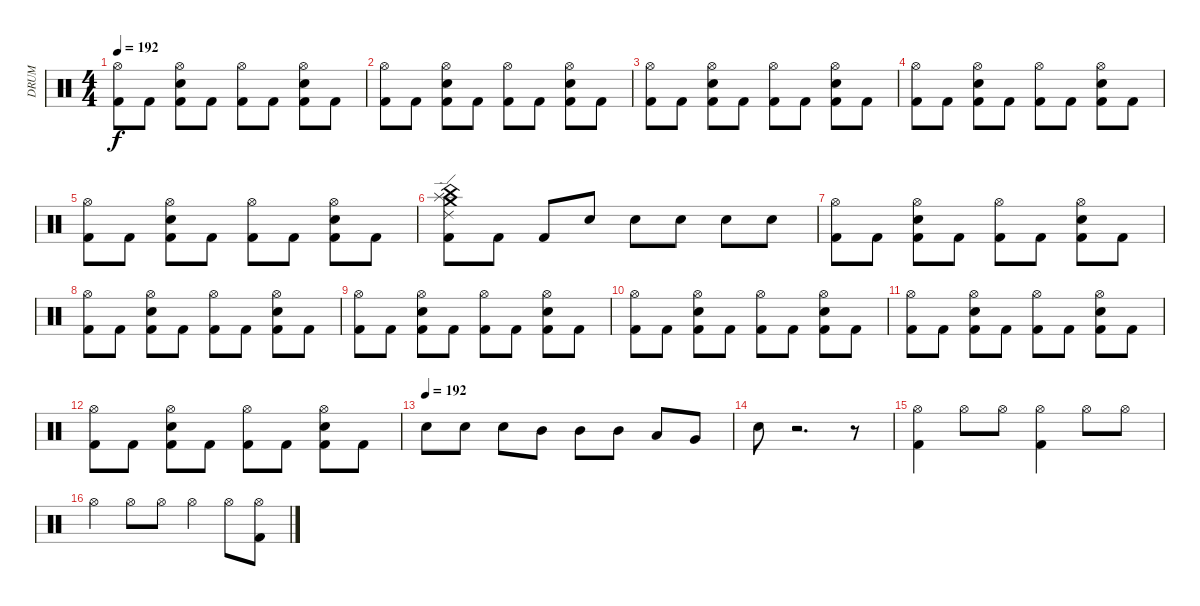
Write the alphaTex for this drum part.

\track ("     DRUM" "     DRUM") {instrument percussion}
\staff {score}
\articulation defaults
\ts (4 4)
\tempo 192
\clef neutral
\ks c
("Hi-Hat (open)" "Kick (hit) 2").8{dy f} "Kick (hit) 2".8 ("Electric Snare (hit)" "Hi-Hat (open)" "Kick (hit) 2").8 "Kick (hit) 2".8 ("Hi-Hat (open)" "Kick (hit) 2").8 "Kick (hit) 2".8 ("Electric Snare (hit)" "Hi-Hat (open)" "Kick (hit) 2").8 "Kick (hit) 2".8 |
("Hi-Hat (open)" "Kick (hit) 2").8 "Kick (hit) 2".8 ("Electric Snare (hit)" "Hi-Hat (open)" "Kick (hit) 2").8 "Kick (hit) 2".8 ("Hi-Hat (open)" "Kick (hit) 2").8 "Kick (hit) 2".8 ("Electric Snare (hit)" "Hi-Hat (open)" "Kick (hit) 2").8 "Kick (hit) 2".8 |
("Hi-Hat (open)" "Kick (hit) 2").8 "Kick (hit) 2".8 ("Electric Snare (hit)" "Hi-Hat (open)" "Kick (hit) 2").8 "Kick (hit) 2".8 ("Hi-Hat (open)" "Kick (hit) 2").8 "Kick (hit) 2".8 ("Electric Snare (hit)" "Hi-Hat (open)" "Kick (hit) 2").8 "Kick (hit) 2".8 |
("Hi-Hat (open)" "Kick (hit) 2").8 "Kick (hit) 2".8 ("Electric Snare (hit)" "Hi-Hat (open)" "Kick (hit) 2").8 "Kick (hit) 2".8 ("Hi-Hat (open)" "Kick (hit) 2").8 "Kick (hit) 2".8 ("Electric Snare (hit)" "Hi-Hat (open)" "Kick (hit) 2").8 "Kick (hit) 2".8 |
("Hi-Hat (open)" "Kick (hit) 2").8 "Kick (hit) 2".8 ("Electric Snare (hit)" "Hi-Hat (open)" "Kick (hit) 2").8 "Kick (hit) 2".8 ("Hi-Hat (open)" "Kick (hit) 2").8 "Kick (hit) 2".8 ("Electric Snare (hit)" "Hi-Hat (open)" "Kick (hit) 2").8 "Kick (hit) 2".8 |
("Ride (edge) 2" "Crash medium (hit)" "Splash (hit)" "China (hit)" "Kick (hit) 2").8 "Kick (hit) 2".8 "Kick (hit) 2".8 "Electric Snare (hit)".8{volume 6} "Electric Snare (hit)".8{volume 7} "Electric Snare (hit)".8{volume 8} "Electric Snare (hit)".8{volume 9} "Electric Snare (hit)".8{volume 10} |
("Hi-Hat (open)" "Kick (hit) 2").8{volume 11} "Kick (hit) 2".8 ("Electric Snare (hit)" "Hi-Hat (open)" "Kick (hit) 2").8 "Kick (hit) 2".8 ("Hi-Hat (open)" "Kick (hit) 2").8 "Kick (hit) 2".8 ("Electric Snare (hit)" "Hi-Hat (open)" "Kick (hit) 2").8 "Kick (hit) 2".8 |
("Hi-Hat (open)" "Kick (hit) 2").8 "Kick (hit) 2".8 ("Electric Snare (hit)" "Hi-Hat (open)" "Kick (hit) 2").8 "Kick (hit) 2".8 ("Hi-Hat (open)" "Kick (hit) 2").8 "Kick (hit) 2".8 ("Electric Snare (hit)" "Hi-Hat (open)" "Kick (hit) 2").8 "Kick (hit) 2".8 |
("Hi-Hat (open)" "Kick (hit) 2").8 "Kick (hit) 2".8 ("Electric Snare (hit)" "Hi-Hat (open)" "Kick (hit) 2").8 "Kick (hit) 2".8 ("Hi-Hat (open)" "Kick (hit) 2").8 "Kick (hit) 2".8 ("Electric Snare (hit)" "Hi-Hat (open)" "Kick (hit) 2").8 "Kick (hit) 2".8 |
("Hi-Hat (open)" "Kick (hit) 2").8 "Kick (hit) 2".8 ("Electric Snare (hit)" "Hi-Hat (open)" "Kick (hit) 2").8 "Kick (hit) 2".8 ("Hi-Hat (open)" "Kick (hit) 2").8 "Kick (hit) 2".8 ("Electric Snare (hit)" "Hi-Hat (open)" "Kick (hit) 2").8 "Kick (hit) 2".8 |
("Hi-Hat (open)" "Kick (hit) 2").8 "Kick (hit) 2".8 ("Electric Snare (hit)" "Hi-Hat (open)" "Kick (hit) 2").8 "Kick (hit) 2".8 ("Hi-Hat (open)" "Kick (hit) 2").8 "Kick (hit) 2".8 ("Electric Snare (hit)" "Hi-Hat (open)" "Kick (hit) 2").8 "Kick (hit) 2".8 |
("Hi-Hat (open)" "Kick (hit) 2").8 "Kick (hit) 2".8 ("Electric Snare (hit)" "Hi-Hat (open)" "Kick (hit) 2").8 "Kick (hit) 2".8 ("Hi-Hat (open)" "Kick (hit) 2").8 "Kick (hit) 2".8 ("Electric Snare (hit)" "Hi-Hat (open)" "Kick (hit) 2").8 "Kick (hit) 2".8 |
\tempo (192)
"Electric Snare (hit)".8 "Electric Snare (hit)".8 "Electric Snare (hit)".8 "Mid Tom (hit)".8 "Mid Tom (hit)".8 "Mid Tom (hit)".8 "Low Tom (hit)".8 "Very Low Tom (hit)".8 |
"Electric Snare (hit)".8 r.2{d} r.8 |
("Kick (hit) 2" "Hi-Hat (open)").4 "Hi-Hat (open)".8 "Hi-Hat (open)".8 ("Kick (hit) 2" "Hi-Hat (open)").4 "Hi-Hat (open)".8 "Hi-Hat (open)".8 |
"Hi-Hat (open)".4 "Hi-Hat (open)".8 "Hi-Hat (open)".8 "Hi-Hat (open)".4 "Hi-Hat (open)".8 ("Kick (hit) 2" "Hi-Hat (open)").8
